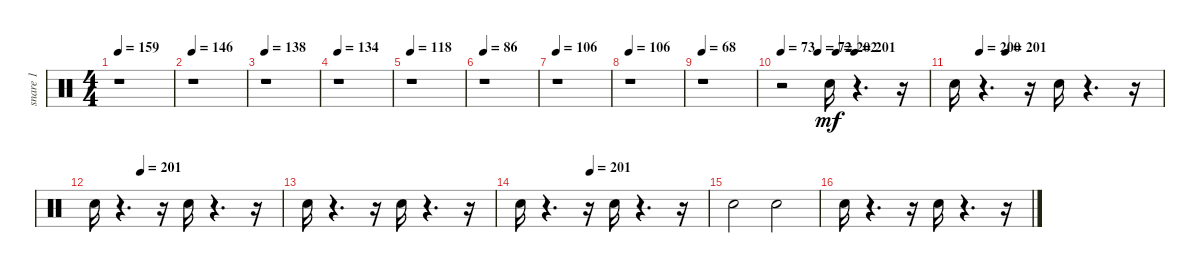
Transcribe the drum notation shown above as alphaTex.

\track ("snare 1" "snare 1") {instrument percussion}
\staff {score}
\articulation defaults
\ts (4 4)
\tempo 159
\clef neutral
\ks c
r.1{dy mf} |
\tempo 146
r.1 |
\tempo 138
r.1 |
\tempo 134
r.1 |
\tempo 118
r.1 |
\tempo 86
r.1 |
\tempo 106
r.1 |
\tempo 106
r.1 |
\tempo 68
r.1 |
\tempo 73
\tempo (72 0.25)
\tempo (202 0.375)
\tempo (201 0.5)
r.2 "Snare (hit) 2".16 r.4{d} r.16 |
\tempo (200 0.125)
\tempo (201 0.25)
"Snare (hit) 2".16 r.4{d} r.16 "Snare (hit) 2".16 r.4{d} r.16 |
\tempo (201 0.25)
"Snare (hit) 2".16 r.4{d} r.16 "Snare (hit) 2".16 r.4{d} r.16 |
"Snare (hit) 2".16 r.4{d} r.16 "Snare (hit) 2".16 r.4{d} r.16 |
\tempo (201 0.375)
"Snare (hit) 2".16 r.4{d} r.16 "Snare (hit) 2".16 r.4{d} r.16 |
"Snare (hit) 2".2 "Snare (hit) 2".2 |
"Snare (hit) 2".16 r.4{d} r.16 "Snare (hit) 2".16 r.4{d} r.16
